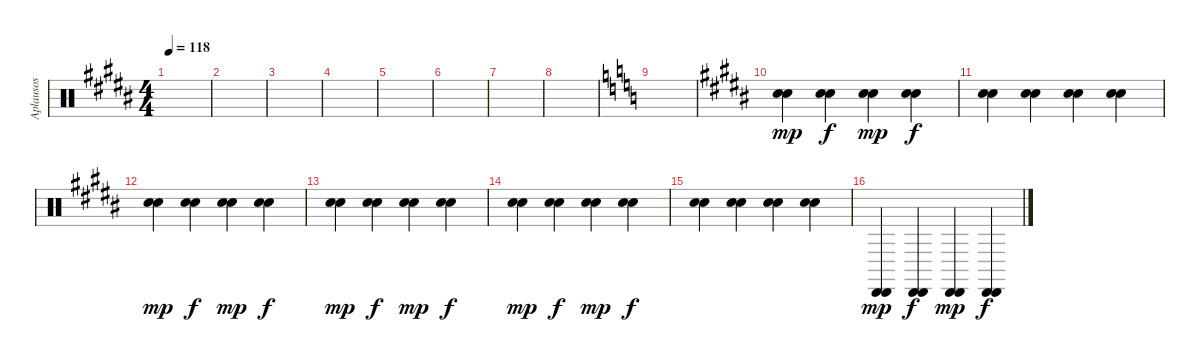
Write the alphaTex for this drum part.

\track ("Aplausos" "Aplausos") {instrument percussion}
\staff {score}
\articulation defaults
\ts (4 4)
\tempo 118
\clef neutral
\ks b
|
|
|
|
|
|
|
|
\ks c
|
\ks b
("Hand Clap (hit)" "Hand Clap (hit)").4{dy mp} ("Hand Clap (hit)" "Hand Clap (hit)").4{dy f} ("Hand Clap (hit)" "Hand Clap (hit)").4{dy mp} ("Hand Clap (hit)" "Hand Clap (hit)").4{dy f} |
("Hand Clap (hit)" "Hand Clap (hit)").4 ("Hand Clap (hit)" "Hand Clap (hit)").4 ("Hand Clap (hit)" "Hand Clap (hit)").4 ("Hand Clap (hit)" "Hand Clap (hit)").4 |
("Hand Clap (hit)" "Hand Clap (hit)").4{dy mp} ("Hand Clap (hit)" "Hand Clap (hit)").4{dy f} ("Hand Clap (hit)" "Hand Clap (hit)").4{dy mp} ("Hand Clap (hit)" "Hand Clap (hit)").4{dy f} |
("Hand Clap (hit)" "Hand Clap (hit)").4{dy mp} ("Hand Clap (hit)" "Hand Clap (hit)").4{dy f} ("Hand Clap (hit)" "Hand Clap (hit)").4{dy mp} ("Hand Clap (hit)" "Hand Clap (hit)").4{dy f} |
("Hand Clap (hit)" "Hand Clap (hit)").4{dy mp} ("Hand Clap (hit)" "Hand Clap (hit)").4{dy f} ("Hand Clap (hit)" "Hand Clap (hit)").4{dy mp} ("Hand Clap (hit)" "Hand Clap (hit)").4{dy f} |
("Hand Clap (hit)" "Hand Clap (hit)").4 ("Hand Clap (hit)" "Hand Clap (hit)").4 ("Hand Clap (hit)" "Hand Clap (hit)").4 ("Hand Clap (hit)" "Hand Clap (hit)").4 |
("Cabasa (hit)" "Cabasa (hit)").4{dy mp} ("Cabasa (hit)" "Cabasa (hit)").4{dy f} ("Cabasa (hit)" "Cabasa (hit)").4{dy mp} ("Cabasa (hit)" "Cabasa (hit)").4{dy f}
